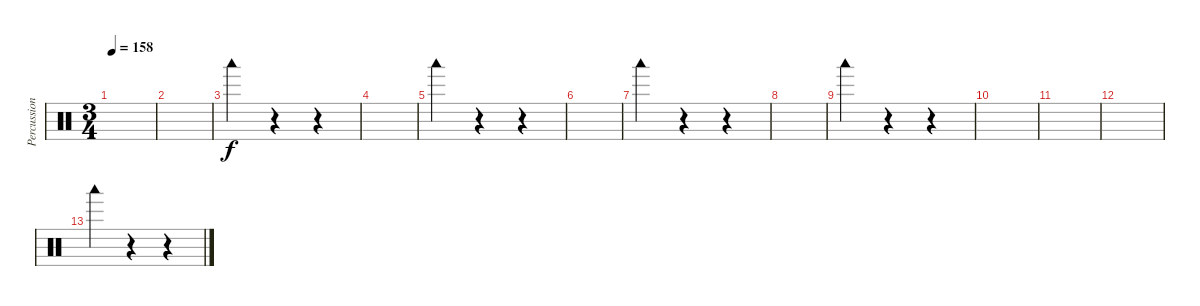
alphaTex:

\track ("Percussion" "Percussion") {instrument percussion}
\staff {score}
\articulation defaults
\ts (3 4)
\tempo 158
\clef neutral
\ks c
|
|
"Woodblock low (hit)".4 r.4 r.4 |
|
"Woodblock low (hit)".4 r.4 r.4 |
|
"Woodblock low (hit)".4 r.4 r.4 |
|
"Woodblock low (hit)".4 r.4 r.4 |
|
|
|
"Woodblock low (hit)".4 r.4 r.4
